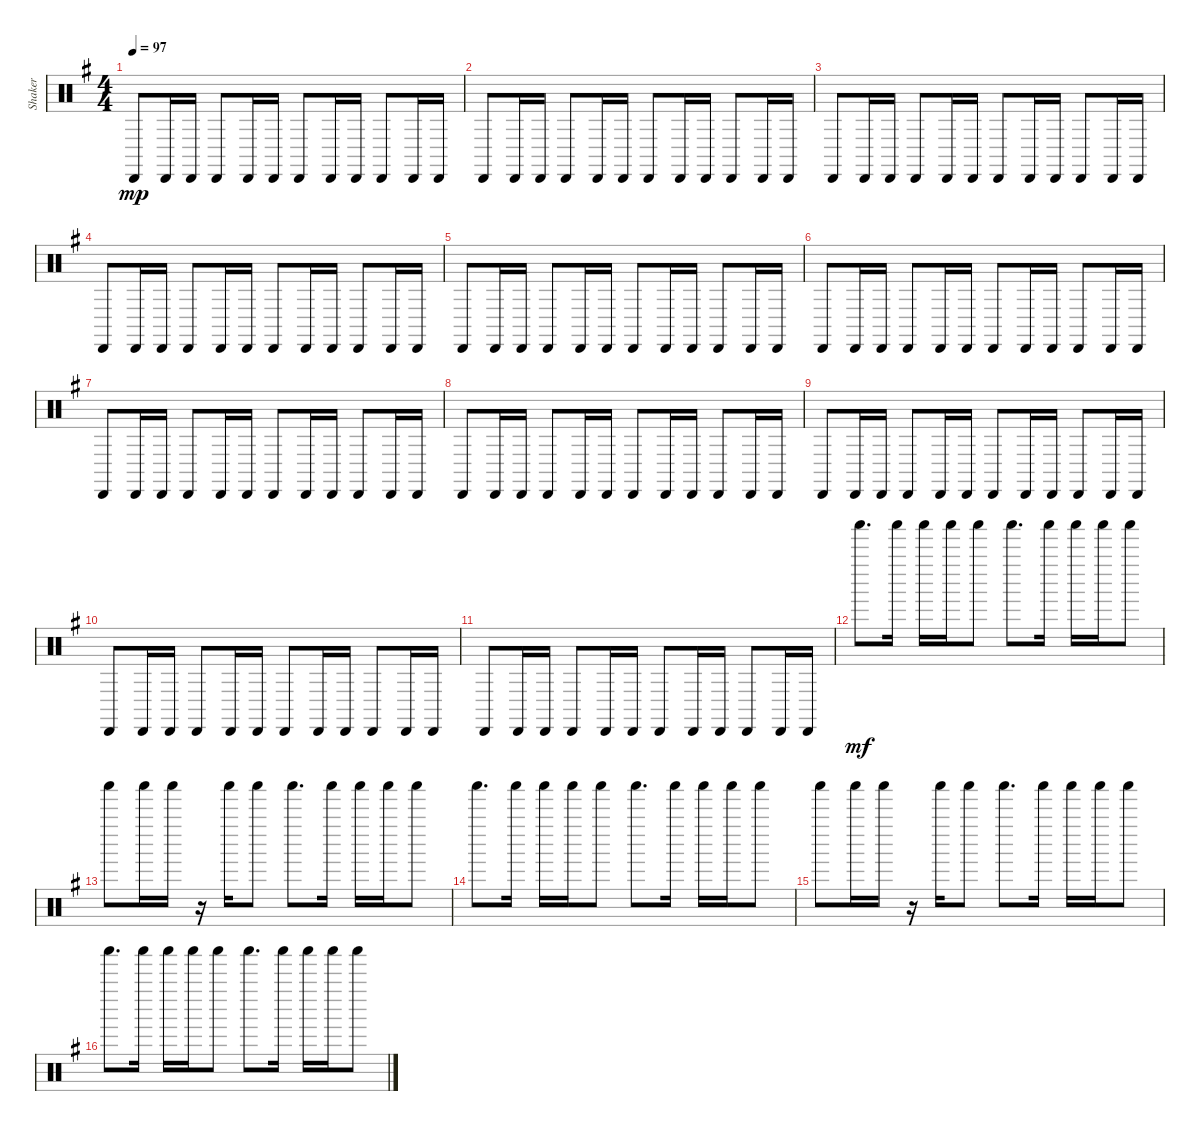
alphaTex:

\track ("Shaker" "Shaker") {instrument percussion}
\staff {score}
\articulation defaults
\ts (4 4)
\tempo 97
\clef neutral
\ks g "Cabasa (hit)".8{dy mp} "Cabasa (hit)".16 "Cabasa (hit)".16 "Cabasa (hit)".8 "Cabasa (hit)".16 "Cabasa (hit)".16 "Cabasa (hit)".8 "Cabasa (hit)".16 "Cabasa (hit)".16 "Cabasa (hit)".8 "Cabasa (hit)".16 "Cabasa (hit)".16
|
"Cabasa (hit)".8 "Cabasa (hit)".16 "Cabasa (hit)".16 "Cabasa (hit)".8 "Cabasa (hit)".16 "Cabasa (hit)".16 "Cabasa (hit)".8 "Cabasa (hit)".16 "Cabasa (hit)".16 "Cabasa (hit)".8 "Cabasa (hit)".16 "Cabasa (hit)".16 |
"Cabasa (hit)".8 "Cabasa (hit)".16 "Cabasa (hit)".16 "Cabasa (hit)".8 "Cabasa (hit)".16 "Cabasa (hit)".16 "Cabasa (hit)".8 "Cabasa (hit)".16 "Cabasa (hit)".16 "Cabasa (hit)".8 "Cabasa (hit)".16 "Cabasa (hit)".16 |
"Cabasa (hit)".8 "Cabasa (hit)".16 "Cabasa (hit)".16 "Cabasa (hit)".8 "Cabasa (hit)".16 "Cabasa (hit)".16 "Cabasa (hit)".8 "Cabasa (hit)".16 "Cabasa (hit)".16 "Cabasa (hit)".8 "Cabasa (hit)".16 "Cabasa (hit)".16 |
"Cabasa (hit)".8 "Cabasa (hit)".16 "Cabasa (hit)".16 "Cabasa (hit)".8 "Cabasa (hit)".16 "Cabasa (hit)".16 "Cabasa (hit)".8 "Cabasa (hit)".16 "Cabasa (hit)".16 "Cabasa (hit)".8 "Cabasa (hit)".16 "Cabasa (hit)".16 |
"Cabasa (hit)".8 "Cabasa (hit)".16 "Cabasa (hit)".16 "Cabasa (hit)".8 "Cabasa (hit)".16 "Cabasa (hit)".16 "Cabasa (hit)".8 "Cabasa (hit)".16 "Cabasa (hit)".16 "Cabasa (hit)".8 "Cabasa (hit)".16 "Cabasa (hit)".16 |
"Cabasa (hit)".8 "Cabasa (hit)".16 "Cabasa (hit)".16 "Cabasa (hit)".8 "Cabasa (hit)".16 "Cabasa (hit)".16 "Cabasa (hit)".8 "Cabasa (hit)".16 "Cabasa (hit)".16 "Cabasa (hit)".8 "Cabasa (hit)".16 "Cabasa (hit)".16 |
"Cabasa (hit)".8 "Cabasa (hit)".16 "Cabasa (hit)".16 "Cabasa (hit)".8 "Cabasa (hit)".16 "Cabasa (hit)".16 "Cabasa (hit)".8 "Cabasa (hit)".16 "Cabasa (hit)".16 "Cabasa (hit)".8 "Cabasa (hit)".16 "Cabasa (hit)".16 |
"Cabasa (hit)".8 "Cabasa (hit)".16 "Cabasa (hit)".16 "Cabasa (hit)".8 "Cabasa (hit)".16 "Cabasa (hit)".16 "Cabasa (hit)".8 "Cabasa (hit)".16 "Cabasa (hit)".16 "Cabasa (hit)".8 "Cabasa (hit)".16 "Cabasa (hit)".16 |
"Cabasa (hit)".8 "Cabasa (hit)".16 "Cabasa (hit)".16 "Cabasa (hit)".8 "Cabasa (hit)".16 "Cabasa (hit)".16 "Cabasa (hit)".8 "Cabasa (hit)".16 "Cabasa (hit)".16 "Cabasa (hit)".8 "Cabasa (hit)".16 "Cabasa (hit)".16 |
"Cabasa (hit)".8 "Cabasa (hit)".16 "Cabasa (hit)".16 "Cabasa (hit)".8 "Cabasa (hit)".16 "Cabasa (hit)".16 "Cabasa (hit)".8 "Cabasa (hit)".16 "Cabasa (hit)".16 "Cabasa (hit)".8 "Cabasa (hit)".16 "Cabasa (hit)".16 |
"Shaker (hit)".8{d dy mf} "Shaker (hit)".16 "Shaker (hit)".16 "Shaker (hit)".16 "Shaker (hit)".8 "Shaker (hit)".8{d} "Shaker (hit)".16 "Shaker (hit)".16 "Shaker (hit)".16 "Shaker (hit)".8 |
"Shaker (hit)".8 "Shaker (hit)".16 "Shaker (hit)".16 r.16 "Shaker (hit)".16 "Shaker (hit)".8 "Shaker (hit)".8{d} "Shaker (hit)".16 "Shaker (hit)".16 "Shaker (hit)".16 "Shaker (hit)".8 |
"Shaker (hit)".8{d} "Shaker (hit)".16 "Shaker (hit)".16 "Shaker (hit)".16 "Shaker (hit)".8 "Shaker (hit)".8{d} "Shaker (hit)".16 "Shaker (hit)".16 "Shaker (hit)".16 "Shaker (hit)".8 |
"Shaker (hit)".8 "Shaker (hit)".16 "Shaker (hit)".16 r.16 "Shaker (hit)".16 "Shaker (hit)".8 "Shaker (hit)".8{d} "Shaker (hit)".16 "Shaker (hit)".16 "Shaker (hit)".16 "Shaker (hit)".8 |
"Shaker (hit)".8{d} "Shaker (hit)".16 "Shaker (hit)".16 "Shaker (hit)".16 "Shaker (hit)".8 "Shaker (hit)".8{d} "Shaker (hit)".16 "Shaker (hit)".16 "Shaker (hit)".16 "Shaker (hit)".8
